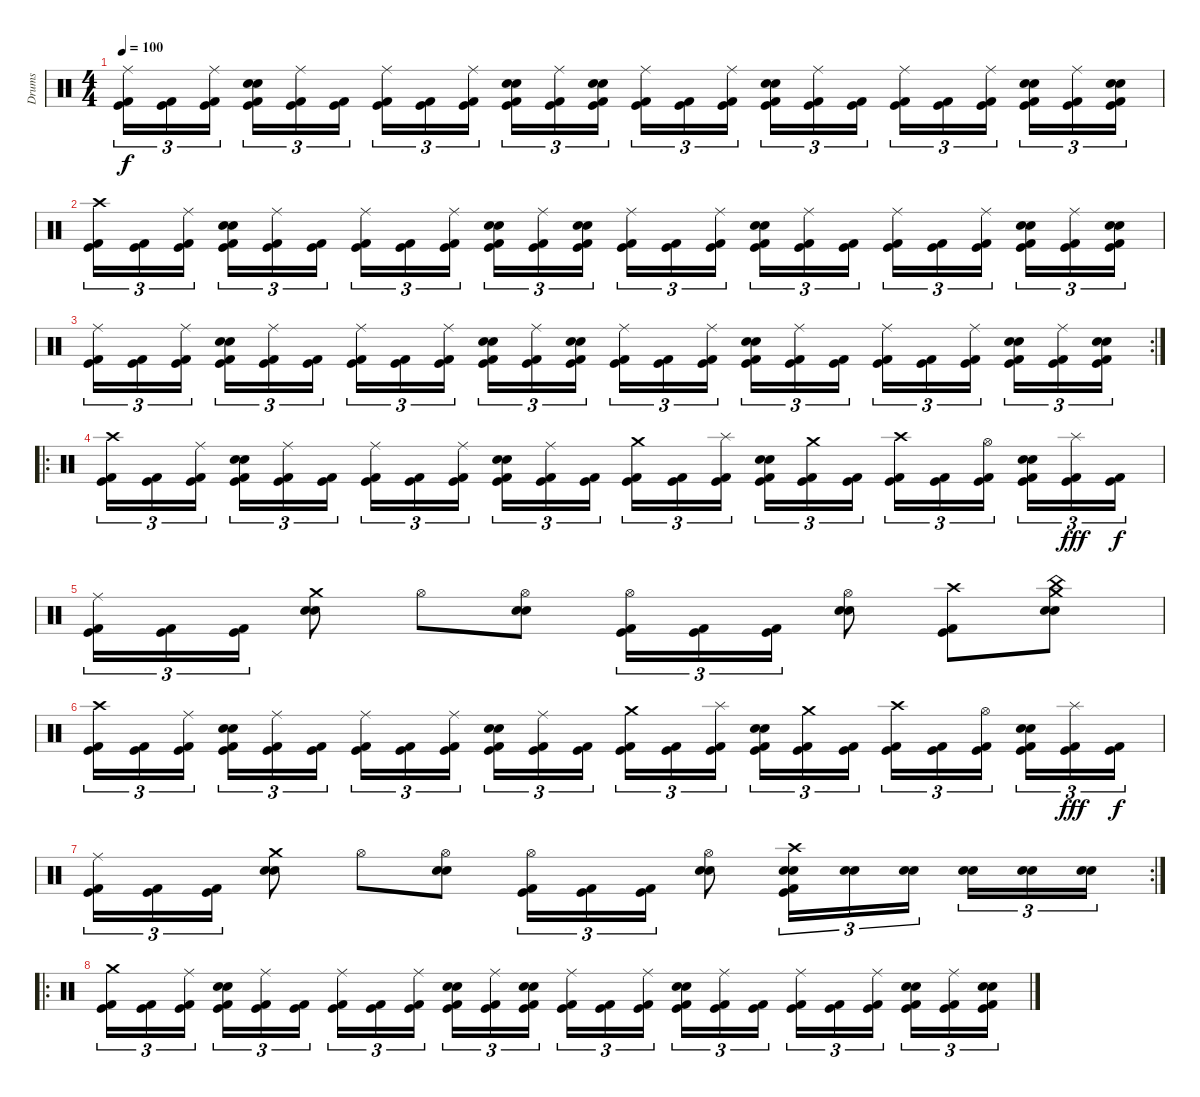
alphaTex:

\track ("Drums" "Drums") {instrument percussion}
\staff {score}
\articulation defaults
\ts (4 4)
\tempo 100
\clef neutral
\ks c
("Ride (middle)" "Kick (hit)" "Kick (hit) 2").16{tu (3 2) dy f} ("Kick (hit)" "Kick (hit) 2").16{tu (3 2)} ("Ride (middle)" "Kick (hit)" "Kick (hit) 2").16{tu (3 2) beam splitsecondary} ("Electric Snare (hit)" "Snare (hit) 2" "Kick (hit)" "Kick (hit) 2").16{tu (3 2)} ("Ride (middle)" "Kick (hit)" "Kick (hit) 2").16{tu (3 2)} ("Kick (hit)" "Kick (hit) 2").16{tu (3 2)} ("Ride (middle)" "Kick (hit)" "Kick (hit) 2").16{tu (3 2)} ("Kick (hit)" "Kick (hit) 2").16{tu (3 2)} ("Ride (middle)" "Kick (hit)" "Kick (hit) 2").16{tu (3 2) beam splitsecondary} ("Electric Snare (hit)" "Snare (hit) 2" "Kick (hit)" "Kick (hit) 2").16{tu (3 2)} ("Ride (middle)" "Kick (hit)" "Kick (hit) 2").16{tu (3 2)} ("Electric Snare (hit)" "Snare (hit) 2" "Kick (hit)" "Kick (hit) 2").16{tu (3 2)} ("Ride (middle)" "Kick (hit)" "Kick (hit) 2").16{tu (3 2)} ("Kick (hit)" "Kick (hit) 2").16{tu (3 2)} ("Ride (middle)" "Kick (hit)" "Kick (hit) 2").16{tu (3 2) beam splitsecondary} ("Electric Snare (hit)" "Snare (hit) 2" "Kick (hit)" "Kick (hit) 2").16{tu (3 2)} ("Ride (middle)" "Kick (hit)" "Kick (hit) 2").16{tu (3 2)} ("Kick (hit)" "Kick (hit) 2").16{tu (3 2)} ("Ride (middle)" "Kick (hit)" "Kick (hit) 2").16{tu (3 2)} ("Kick (hit)" "Kick (hit) 2").16{tu (3 2)} ("Ride (middle)" "Kick (hit)" "Kick (hit) 2").16{tu (3 2) beam splitsecondary} ("Electric Snare (hit)" "Snare (hit) 2" "Kick (hit)" "Kick (hit) 2").16{tu (3 2)} ("Ride (middle)" "Kick (hit)" "Kick (hit) 2").16{tu (3 2)} ("Electric Snare (hit)" "Snare (hit) 2" "Kick (hit)" "Kick (hit) 2").16{tu (3 2)} |
("Crash high (hit)" "Kick (hit)" "Kick (hit) 2").16{tu (3 2)} ("Kick (hit)" "Kick (hit) 2").16{tu (3 2)} ("Ride (middle)" "Kick (hit)" "Kick (hit) 2").16{tu (3 2) beam splitsecondary} ("Electric Snare (hit)" "Snare (hit) 2" "Kick (hit)" "Kick (hit) 2").16{tu (3 2)} ("Ride (middle)" "Kick (hit)" "Kick (hit) 2").16{tu (3 2)} ("Kick (hit)" "Kick (hit) 2").16{tu (3 2)} ("Ride (middle)" "Kick (hit)" "Kick (hit) 2").16{tu (3 2)} ("Kick (hit)" "Kick (hit) 2").16{tu (3 2)} ("Ride (middle)" "Kick (hit)" "Kick (hit) 2").16{tu (3 2) beam splitsecondary} ("Electric Snare (hit)" "Snare (hit) 2" "Kick (hit)" "Kick (hit) 2").16{tu (3 2)} ("Ride (middle)" "Kick (hit)" "Kick (hit) 2").16{tu (3 2)} ("Electric Snare (hit)" "Snare (hit) 2" "Kick (hit)" "Kick (hit) 2").16{tu (3 2)} ("Ride (middle)" "Kick (hit)" "Kick (hit) 2").16{tu (3 2)} ("Kick (hit)" "Kick (hit) 2").16{tu (3 2)} ("Ride (middle)" "Kick (hit)" "Kick (hit) 2").16{tu (3 2) beam splitsecondary} ("Electric Snare (hit)" "Snare (hit) 2" "Kick (hit)" "Kick (hit) 2").16{tu (3 2)} ("Ride (middle)" "Kick (hit)" "Kick (hit) 2").16{tu (3 2)} ("Kick (hit)" "Kick (hit) 2").16{tu (3 2)} ("Ride (middle)" "Kick (hit)" "Kick (hit) 2").16{tu (3 2)} ("Kick (hit)" "Kick (hit) 2").16{tu (3 2)} ("Ride (middle)" "Kick (hit)" "Kick (hit) 2").16{tu (3 2) beam splitsecondary} ("Electric Snare (hit)" "Snare (hit) 2" "Kick (hit)" "Kick (hit) 2").16{tu (3 2)} ("Ride (middle)" "Kick (hit)" "Kick (hit) 2").16{tu (3 2)} ("Electric Snare (hit)" "Snare (hit) 2" "Kick (hit)" "Kick (hit) 2").16{tu (3 2)} |
\rc 2
("Ride (middle)" "Kick (hit)" "Kick (hit) 2").16{tu (3 2)} ("Kick (hit)" "Kick (hit) 2").16{tu (3 2)} ("Ride (middle)" "Kick (hit)" "Kick (hit) 2").16{tu (3 2) beam splitsecondary} ("Electric Snare (hit)" "Snare (hit) 2" "Kick (hit)" "Kick (hit) 2").16{tu (3 2)} ("Ride (middle)" "Kick (hit)" "Kick (hit) 2").16{tu (3 2)} ("Kick (hit)" "Kick (hit) 2").16{tu (3 2)} ("Ride (middle)" "Kick (hit)" "Kick (hit) 2").16{tu (3 2)} ("Kick (hit)" "Kick (hit) 2").16{tu (3 2)} ("Ride (middle)" "Kick (hit)" "Kick (hit) 2").16{tu (3 2) beam splitsecondary} ("Electric Snare (hit)" "Snare (hit) 2" "Kick (hit)" "Kick (hit) 2").16{tu (3 2)} ("Ride (middle)" "Kick (hit)" "Kick (hit) 2").16{tu (3 2)} ("Electric Snare (hit)" "Snare (hit) 2" "Kick (hit)" "Kick (hit) 2").16{tu (3 2)} ("Ride (middle)" "Kick (hit)" "Kick (hit) 2").16{tu (3 2)} ("Kick (hit)" "Kick (hit) 2").16{tu (3 2)} ("Ride (middle)" "Kick (hit)" "Kick (hit) 2").16{tu (3 2) beam splitsecondary} ("Electric Snare (hit)" "Snare (hit) 2" "Kick (hit)" "Kick (hit) 2").16{tu (3 2)} ("Ride (middle)" "Kick (hit)" "Kick (hit) 2").16{tu (3 2)} ("Kick (hit)" "Kick (hit) 2").16{tu (3 2)} ("Ride (middle)" "Kick (hit)" "Kick (hit) 2").16{tu (3 2)} ("Kick (hit)" "Kick (hit) 2").16{tu (3 2)} ("Ride (middle)" "Kick (hit)" "Kick (hit) 2").16{tu (3 2) beam splitsecondary} ("Electric Snare (hit)" "Snare (hit) 2" "Kick (hit)" "Kick (hit) 2").16{tu (3 2)} ("Ride (middle)" "Kick (hit)" "Kick (hit) 2").16{tu (3 2)} ("Electric Snare (hit)" "Snare (hit) 2" "Kick (hit)" "Kick (hit) 2").16{tu (3 2)} |
\ro
("Crash high (hit)" "Kick (hit)" "Kick (hit) 2").16{tu (3 2)} ("Kick (hit)" "Kick (hit) 2").16{tu (3 2)} ("Ride (middle)" "Kick (hit)" "Kick (hit) 2").16{tu (3 2) beam splitsecondary} ("Electric Snare (hit)" "Snare (hit) 2" "Kick (hit)" "Kick (hit) 2").16{tu (3 2)} ("Ride (middle)" "Kick (hit)" "Kick (hit) 2").16{tu (3 2)} ("Kick (hit)" "Kick (hit) 2").16{tu (3 2)} ("Ride (middle)" "Kick (hit)" "Kick (hit) 2").16{tu (3 2)} ("Kick (hit)" "Kick (hit) 2").16{tu (3 2)} ("Ride (middle)" "Kick (hit)" "Kick (hit) 2").16{tu (3 2) beam splitsecondary} ("Electric Snare (hit)" "Snare (hit) 2" "Kick (hit)" "Kick (hit) 2").16{tu (3 2)} ("Ride (middle)" "Kick (hit)" "Kick (hit) 2").16{tu (3 2)} ("Kick (hit)" "Kick (hit) 2").16{tu (3 2)} ("Crash medium (hit)" "Kick (hit)" "Kick (hit) 2").16{tu (3 2)} ("Kick (hit)" "Kick (hit) 2").16{tu (3 2)} ("Splash (hit)" "Kick (hit)" "Kick (hit) 2").16{tu (3 2) beam splitsecondary} ("Electric Snare (hit)" "Snare (hit) 2" "Kick (hit)" "Kick (hit) 2").16{tu (3 2)} ("Crash medium (hit)" "Kick (hit)" "Kick (hit) 2").16{tu (3 2)} ("Kick (hit)" "Kick (hit) 2").16{tu (3 2)} ("Crash high (hit)" "Kick (hit)" "Kick (hit) 2").16{tu (3 2)} ("Kick (hit)" "Kick (hit) 2").16{tu (3 2)} ("Hi-Hat (open)" "Kick (hit)" "Kick (hit) 2").16{tu (3 2) beam splitsecondary} ("Electric Snare (hit)" "Snare (hit) 2" "Kick (hit)" "Kick (hit) 2").16{tu (3 2)} ("Splash (hit)" "Kick (hit)" "Kick (hit) 2").16{tu (3 2) dy fff} ("Kick (hit)" "Kick (hit) 2").16{tu (3 2) dy f} |
("Ride (middle)" "Kick (hit)" "Kick (hit) 2").16{tu (3 2)} ("Kick (hit)" "Kick (hit) 2").16{tu (3 2)} ("Kick (hit)" "Kick (hit) 2").16{tu (3 2)} ("Crash medium (hit)" "Electric Snare (hit)" "Snare (hit) 2").8 "Hi-Hat (open)".8 ("Hi-Hat (open)" "Electric Snare (hit)" "Snare (hit) 2").8 ("Hi-Hat (open)" "Kick (hit)" "Kick (hit) 2").16{tu (3 2)} ("Kick (hit)" "Kick (hit) 2").16{tu (3 2)} ("Kick (hit)" "Kick (hit) 2").16{tu (3 2)} ("Hi-Hat (open)" "Electric Snare (hit)" "Snare (hit) 2").8 ("Crash high (hit)" "Kick (hit)" "Kick (hit) 2").8 ("Crash medium (hit)" "China (hit)" "Electric Snare (hit)" "Snare (hit) 2").8 |
("Crash high (hit)" "Kick (hit)" "Kick (hit) 2").16{tu (3 2)} ("Kick (hit)" "Kick (hit) 2").16{tu (3 2)} ("Ride (middle)" "Kick (hit)" "Kick (hit) 2").16{tu (3 2) beam splitsecondary} ("Electric Snare (hit)" "Snare (hit) 2" "Kick (hit)" "Kick (hit) 2").16{tu (3 2)} ("Ride (middle)" "Kick (hit)" "Kick (hit) 2").16{tu (3 2)} ("Kick (hit)" "Kick (hit) 2").16{tu (3 2)} ("Ride (middle)" "Kick (hit)" "Kick (hit) 2").16{tu (3 2)} ("Kick (hit)" "Kick (hit) 2").16{tu (3 2)} ("Ride (middle)" "Kick (hit)" "Kick (hit) 2").16{tu (3 2) beam splitsecondary} ("Electric Snare (hit)" "Snare (hit) 2" "Kick (hit)" "Kick (hit) 2").16{tu (3 2)} ("Ride (middle)" "Kick (hit)" "Kick (hit) 2").16{tu (3 2)} ("Kick (hit)" "Kick (hit) 2").16{tu (3 2)} ("Crash medium (hit)" "Kick (hit)" "Kick (hit) 2").16{tu (3 2)} ("Kick (hit)" "Kick (hit) 2").16{tu (3 2)} ("Splash (hit)" "Kick (hit)" "Kick (hit) 2").16{tu (3 2) beam splitsecondary} ("Electric Snare (hit)" "Snare (hit) 2" "Kick (hit)" "Kick (hit) 2").16{tu (3 2)} ("Crash medium (hit)" "Kick (hit)" "Kick (hit) 2").16{tu (3 2)} ("Kick (hit)" "Kick (hit) 2").16{tu (3 2)} ("Crash high (hit)" "Kick (hit)" "Kick (hit) 2").16{tu (3 2)} ("Kick (hit)" "Kick (hit) 2").16{tu (3 2)} ("Hi-Hat (open)" "Kick (hit)" "Kick (hit) 2").16{tu (3 2) beam splitsecondary} ("Electric Snare (hit)" "Snare (hit) 2" "Kick (hit)" "Kick (hit) 2").16{tu (3 2)} ("Splash (hit)" "Kick (hit)" "Kick (hit) 2").16{tu (3 2) dy fff} ("Kick (hit)" "Kick (hit) 2").16{tu (3 2) dy f} |
\rc 2
("Ride (middle)" "Kick (hit)" "Kick (hit) 2").16{tu (3 2)} ("Kick (hit)" "Kick (hit) 2").16{tu (3 2)} ("Kick (hit)" "Kick (hit) 2").16{tu (3 2)} ("Crash medium (hit)" "Electric Snare (hit)" "Snare (hit) 2").8 "Hi-Hat (open)".8 ("Hi-Hat (open)" "Electric Snare (hit)" "Snare (hit) 2").8 ("Hi-Hat (open)" "Kick (hit)" "Kick (hit) 2").16{tu (3 2)} ("Kick (hit)" "Kick (hit) 2").16{tu (3 2)} ("Kick (hit)" "Kick (hit) 2").16{tu (3 2)} ("Hi-Hat (open)" "Electric Snare (hit)" "Snare (hit) 2").8 ("Crash high (hit)" "Electric Snare (hit)" "Snare (hit) 2" "Kick (hit)" "Kick (hit) 2").16{tu (3 2)} ("Electric Snare (hit)" "Snare (hit) 2").16{tu (3 2)} ("Electric Snare (hit)" "Snare (hit) 2").16{tu (3 2) beam splitsecondary} ("Electric Snare (hit)" "Snare (hit) 2").16{tu (3 2)} ("Electric Snare (hit)" "Snare (hit) 2").16{tu (3 2)} ("Electric Snare (hit)" "Snare (hit) 2").16{tu (3 2)} |
\ro
("Crash medium (hit)" "Kick (hit)" "Kick (hit) 2").16{tu (3 2)} ("Kick (hit)" "Kick (hit) 2").16{tu (3 2)} ("Ride (middle)" "Kick (hit)" "Kick (hit) 2").16{tu (3 2) beam splitsecondary} ("Electric Snare (hit)" "Snare (hit) 2" "Kick (hit)" "Kick (hit) 2").16{tu (3 2)} ("Ride (middle)" "Kick (hit)" "Kick (hit) 2").16{tu (3 2)} ("Kick (hit)" "Kick (hit) 2").16{tu (3 2)} ("Ride (middle)" "Kick (hit)" "Kick (hit) 2").16{tu (3 2)} ("Kick (hit)" "Kick (hit) 2").16{tu (3 2)} ("Ride (middle)" "Kick (hit)" "Kick (hit) 2").16{tu (3 2) beam splitsecondary} ("Electric Snare (hit)" "Snare (hit) 2" "Kick (hit)" "Kick (hit) 2").16{tu (3 2)} ("Ride (middle)" "Kick (hit)" "Kick (hit) 2").16{tu (3 2)} ("Electric Snare (hit)" "Snare (hit) 2" "Kick (hit)" "Kick (hit) 2").16{tu (3 2)} ("Ride (middle)" "Kick (hit)" "Kick (hit) 2").16{tu (3 2)} ("Kick (hit)" "Kick (hit) 2").16{tu (3 2)} ("Ride (middle)" "Kick (hit)" "Kick (hit) 2").16{tu (3 2) beam splitsecondary} ("Electric Snare (hit)" "Snare (hit) 2" "Kick (hit)" "Kick (hit) 2").16{tu (3 2)} ("Ride (middle)" "Kick (hit)" "Kick (hit) 2").16{tu (3 2)} ("Kick (hit)" "Kick (hit) 2").16{tu (3 2)} ("Ride (middle)" "Kick (hit)" "Kick (hit) 2").16{tu (3 2)} ("Kick (hit)" "Kick (hit) 2").16{tu (3 2)} ("Ride (middle)" "Kick (hit)" "Kick (hit) 2").16{tu (3 2) beam splitsecondary} ("Electric Snare (hit)" "Snare (hit) 2" "Kick (hit)" "Kick (hit) 2").16{tu (3 2)} ("Ride (middle)" "Kick (hit)" "Kick (hit) 2").16{tu (3 2)} ("Electric Snare (hit)" "Snare (hit) 2" "Kick (hit)" "Kick (hit) 2").16{tu (3 2)}
